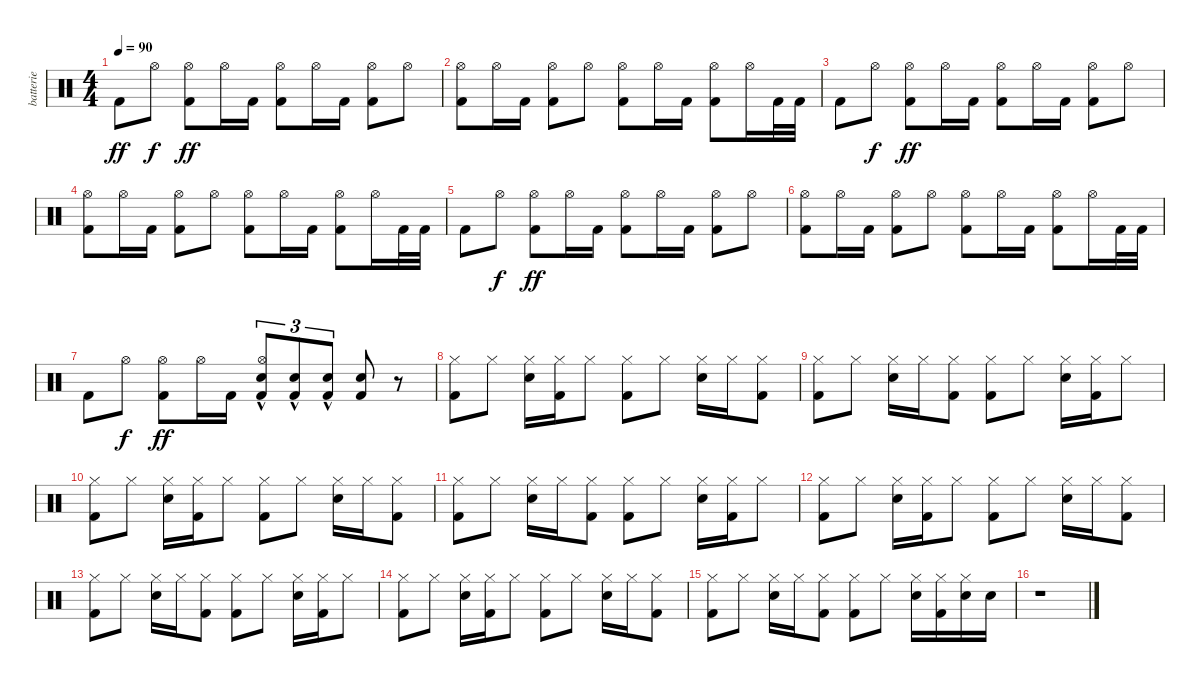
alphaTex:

\track ("batterie" "batterie") {instrument percussion}
\staff {score}
\articulation defaults
\ts (4 4)
\tempo 90
\clef neutral
\ks c "Kick (hit) 2".8{dy ff} "Hi-Hat (open)".8{dy f}
("Kick (hit) 2" "Hi-Hat (open)").8{dy ff} "Hi-Hat (open)".16 "Kick (hit) 2".16 ("Kick (hit) 2" "Hi-Hat (open)").8 "Hi-Hat (open)".16 "Kick (hit) 2".16 ("Kick (hit) 2" "Hi-Hat (open)").8 "Hi-Hat (open)".8 |
("Kick (hit) 2" "Hi-Hat (open)").8 "Hi-Hat (open)".16 "Kick (hit) 2".16 ("Kick (hit) 2" "Hi-Hat (open)").8 "Hi-Hat (open)".8 ("Kick (hit) 2" "Hi-Hat (open)").8 "Hi-Hat (open)".16 "Kick (hit) 2".16 ("Kick (hit) 2" "Hi-Hat (open)").8 "Hi-Hat (open)".16 "Kick (hit) 2".32 "Kick (hit) 2".32 |
"Kick (hit) 2".8 "Hi-Hat (open)".8{dy f} ("Kick (hit) 2" "Hi-Hat (open)").8{dy ff} "Hi-Hat (open)".16 "Kick (hit) 2".16 ("Kick (hit) 2" "Hi-Hat (open)").8 "Hi-Hat (open)".16 "Kick (hit) 2".16 ("Kick (hit) 2" "Hi-Hat (open)").8 "Hi-Hat (open)".8 |
("Kick (hit) 2" "Hi-Hat (open)").8 "Hi-Hat (open)".16 "Kick (hit) 2".16 ("Kick (hit) 2" "Hi-Hat (open)").8 "Hi-Hat (open)".8 ("Kick (hit) 2" "Hi-Hat (open)").8 "Hi-Hat (open)".16 "Kick (hit) 2".16 ("Kick (hit) 2" "Hi-Hat (open)").8 "Hi-Hat (open)".16 "Kick (hit) 2".32 "Kick (hit) 2".32 |
"Kick (hit) 2".8 "Hi-Hat (open)".8{dy f} ("Kick (hit) 2" "Hi-Hat (open)").8{dy ff} "Hi-Hat (open)".16 "Kick (hit) 2".16 ("Kick (hit) 2" "Hi-Hat (open)").8 "Hi-Hat (open)".16 "Kick (hit) 2".16 ("Kick (hit) 2" "Hi-Hat (open)").8 "Hi-Hat (open)".8 |
("Kick (hit) 2" "Hi-Hat (open)").8 "Hi-Hat (open)".16 "Kick (hit) 2".16 ("Kick (hit) 2" "Hi-Hat (open)").8 "Hi-Hat (open)".8 ("Kick (hit) 2" "Hi-Hat (open)").8 "Hi-Hat (open)".16 "Kick (hit) 2".16 ("Kick (hit) 2" "Hi-Hat (open)").8 "Hi-Hat (open)".16 "Kick (hit) 2".32 "Kick (hit) 2".32 |
"Kick (hit) 2".8 "Hi-Hat (open)".8{dy f} ("Kick (hit) 2" "Hi-Hat (open)").8{dy ff} "Hi-Hat (open)".16 "Kick (hit) 2".16 ("Kick (hit) 2"{hac} "Snare (hit) 2"{hac} "Hi-Hat (open)"{hac}).8{tu (3 2)} ("Kick (hit) 2"{hac} "Snare (hit) 2"{hac}).8{tu (3 2)} ("Kick (hit) 2"{hac} "Snare (hit) 2"{hac}).8{tu (3 2)} ("Kick (hit) 2" "Snare (hit) 2").8 r.8 |
("Kick (hit) 2" "Hi-Hat (closed)").8 "Hi-Hat (closed)".8 ("Snare (hit) 2" "Hi-Hat (closed)").16 ("Kick (hit) 2" "Hi-Hat (closed)").16 "Hi-Hat (closed)".8 ("Kick (hit) 2" "Hi-Hat (closed)").8 "Hi-Hat (closed)".8 ("Snare (hit) 2" "Hi-Hat (closed)").16 "Hi-Hat (closed)".16 ("Kick (hit) 2" "Hi-Hat (closed)").8 |
("Kick (hit) 2" "Hi-Hat (closed)").8 "Hi-Hat (closed)".8 ("Snare (hit) 2" "Hi-Hat (closed)").16 "Hi-Hat (closed)".16 ("Kick (hit) 2" "Hi-Hat (closed)").8 ("Kick (hit) 2" "Hi-Hat (closed)").8 "Hi-Hat (closed)".8 ("Snare (hit) 2" "Hi-Hat (closed)").16 ("Kick (hit) 2" "Hi-Hat (closed)").16 "Hi-Hat (closed)".8 |
("Kick (hit) 2" "Hi-Hat (closed)").8 "Hi-Hat (closed)".8 ("Snare (hit) 2" "Hi-Hat (closed)").16 ("Kick (hit) 2" "Hi-Hat (closed)").16 "Hi-Hat (closed)".8 ("Kick (hit) 2" "Hi-Hat (closed)").8 "Hi-Hat (closed)".8 ("Snare (hit) 2" "Hi-Hat (closed)").16 "Hi-Hat (closed)".16 ("Kick (hit) 2" "Hi-Hat (closed)").8 |
("Kick (hit) 2" "Hi-Hat (closed)").8 "Hi-Hat (closed)".8 ("Snare (hit) 2" "Hi-Hat (closed)").16 "Hi-Hat (closed)".16 ("Kick (hit) 2" "Hi-Hat (closed)").8 ("Kick (hit) 2" "Hi-Hat (closed)").8 "Hi-Hat (closed)".8 ("Snare (hit) 2" "Hi-Hat (closed)").16 ("Kick (hit) 2" "Hi-Hat (closed)").16 "Hi-Hat (closed)".8 |
("Kick (hit) 2" "Hi-Hat (closed)").8 "Hi-Hat (closed)".8 ("Snare (hit) 2" "Hi-Hat (closed)").16 ("Kick (hit) 2" "Hi-Hat (closed)").16 "Hi-Hat (closed)".8 ("Kick (hit) 2" "Hi-Hat (closed)").8 "Hi-Hat (closed)".8 ("Snare (hit) 2" "Hi-Hat (closed)").16 "Hi-Hat (closed)".16 ("Kick (hit) 2" "Hi-Hat (closed)").8 |
("Kick (hit) 2" "Hi-Hat (closed)").8 "Hi-Hat (closed)".8 ("Snare (hit) 2" "Hi-Hat (closed)").16 "Hi-Hat (closed)".16 ("Kick (hit) 2" "Hi-Hat (closed)").8 ("Kick (hit) 2" "Hi-Hat (closed)").8 "Hi-Hat (closed)".8 ("Snare (hit) 2" "Hi-Hat (closed)").16 ("Kick (hit) 2" "Hi-Hat (closed)").16 "Hi-Hat (closed)".8 |
("Kick (hit) 2" "Hi-Hat (closed)").8 "Hi-Hat (closed)".8 ("Snare (hit) 2" "Hi-Hat (closed)").16 ("Kick (hit) 2" "Hi-Hat (closed)").16 "Hi-Hat (closed)".8 ("Kick (hit) 2" "Hi-Hat (closed)").8 "Hi-Hat (closed)".8 ("Snare (hit) 2" "Hi-Hat (closed)").16 "Hi-Hat (closed)".16 ("Kick (hit) 2" "Hi-Hat (closed)").8 |
("Kick (hit) 2" "Hi-Hat (closed)").8 "Hi-Hat (closed)".8 ("Snare (hit) 2" "Hi-Hat (closed)").16 "Hi-Hat (closed)".16 ("Kick (hit) 2" "Hi-Hat (closed)").8 ("Kick (hit) 2" "Hi-Hat (closed)").8 "Hi-Hat (closed)".8 ("Snare (hit) 2" "Hi-Hat (closed)").16 ("Kick (hit) 2" "Hi-Hat (closed)").16 ("Snare (hit) 2" "Hi-Hat (closed)").16 "Snare (hit) 2".16 |
r.1
